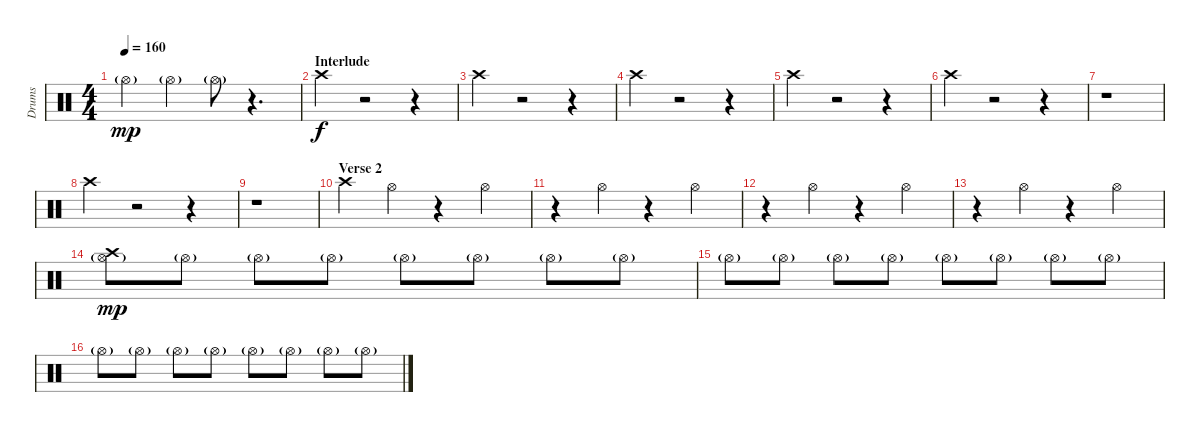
\track ("Drums" "Drums") {instrument percussion}
\staff {score}
\articulation defaults
\ts (4 4)
\tempo 160
\clef neutral
\ks c "Hi-Hat (open)"{g}.4{dy mp} "Hi-Hat (open)"{g}.4 "Hi-Hat (open)"{g}.8
r.4{d} |
\section ("" "Interlude")
"Crash high (hit)".4{dy f} r.2 r.4 |
"Crash high (hit)".4 r.2 r.4 |
"Crash high (hit)".4 r.2 r.4 |
"Crash high (hit)".4 r.2 r.4 |
"Crash high (hit)".4 r.2 r.4 |
r.1 |
"Crash high (hit)".4 r.2 r.4 |
r.1 |
\section ("" "Verse 2")
"Crash high (hit)".4 "Hi-Hat (open)".4 r.4 "Hi-Hat (open)".4 |
r.4 "Hi-Hat (open)".4 r.4 "Hi-Hat (open)".4 |
r.4 "Hi-Hat (open)".4 r.4 "Hi-Hat (open)".4 |
r.4 "Hi-Hat (open)".4 r.4 "Hi-Hat (open)".4 |
("Hi-Hat (open)"{g} "Crash high (hit)").8{dy mp} "Hi-Hat (open)"{g}.8 "Hi-Hat (open)"{g}.8 "Hi-Hat (open)"{g}.8 "Hi-Hat (open)"{g}.8 "Hi-Hat (open)"{g}.8 "Hi-Hat (open)"{g}.8 "Hi-Hat (open)"{g}.8 |
"Hi-Hat (open)"{g}.8 "Hi-Hat (open)"{g}.8 "Hi-Hat (open)"{g}.8 "Hi-Hat (open)"{g}.8 "Hi-Hat (open)"{g}.8 "Hi-Hat (open)"{g}.8 "Hi-Hat (open)"{g}.8 "Hi-Hat (open)"{g}.8 |
"Hi-Hat (open)"{g}.8 "Hi-Hat (open)"{g}.8 "Hi-Hat (open)"{g}.8 "Hi-Hat (open)"{g}.8 "Hi-Hat (open)"{g}.8 "Hi-Hat (open)"{g}.8 "Hi-Hat (open)"{g}.8 "Hi-Hat (open)"{g}.8
